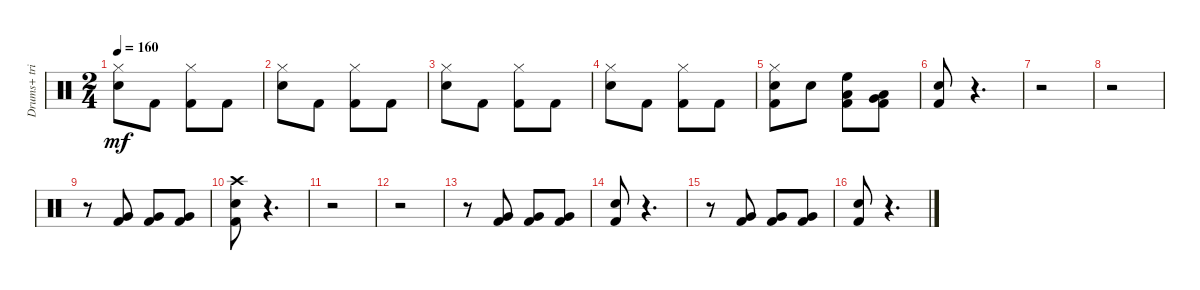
\track ("Drums+ triangle" "Drums+ tri") {instrument percussion}
\staff {score}
\articulation defaults
\ts (2 4)
\tempo 160
\clef neutral
\ks c
("Hi-Hat (closed)" "Snare (hit) 2").8{dy mf} "Kick (hit) 2".8 ("Hi-Hat (closed)" "Kick (hit) 2").8 "Kick (hit) 2".8 |
("Hi-Hat (closed)" "Snare (hit) 2").8 "Kick (hit) 2".8 ("Hi-Hat (closed)" "Kick (hit) 2").8 "Kick (hit) 2".8 |
("Hi-Hat (closed)" "Snare (hit) 2").8 "Kick (hit) 2".8 ("Hi-Hat (closed)" "Kick (hit) 2").8 "Kick (hit) 2".8 |
("Hi-Hat (closed)" "Snare (hit) 2").8 "Kick (hit) 2".8 ("Hi-Hat (closed)" "Kick (hit) 2").8 "Kick (hit) 2".8 |
("Kick (hit) 2" "Snare (hit) 2" "Hi-Hat (closed)").8 "Snare (hit) 2".8 ("Kick (hit) 2" "Low Tom (hit)" "High Floor Tom (hit)").8 ("Kick (hit) 2" "Very Low Tom (hit)" "Low Tom (hit)").8 |
("Kick (hit) 2" "Snare (hit) 2").8 r.4{d} |
r.2 |
r.2 |
r.8 ("Kick (hit) 2" "Very Low Tom (hit)").8 ("Kick (hit) 2" "Very Low Tom (hit)").8 ("Kick (hit) 2" "Very Low Tom (hit)").8 |
("Kick (hit) 2" "Snare (hit) 2" "Crash high (hit)").8 r.4{d} |
r.2 |
r.2 |
r.8 ("Kick (hit) 2" "Very Low Tom (hit)").8 ("Kick (hit) 2" "Very Low Tom (hit)").8 ("Kick (hit) 2" "Very Low Tom (hit)").8 |
("Kick (hit) 2" "Snare (hit) 2").8 r.4{d} |
r.8 ("Kick (hit) 2" "Very Low Tom (hit)").8 ("Kick (hit) 2" "Very Low Tom (hit)").8 ("Kick (hit) 2" "Very Low Tom (hit)").8 |
("Kick (hit) 2" "Snare (hit) 2").8 r.4{d}
